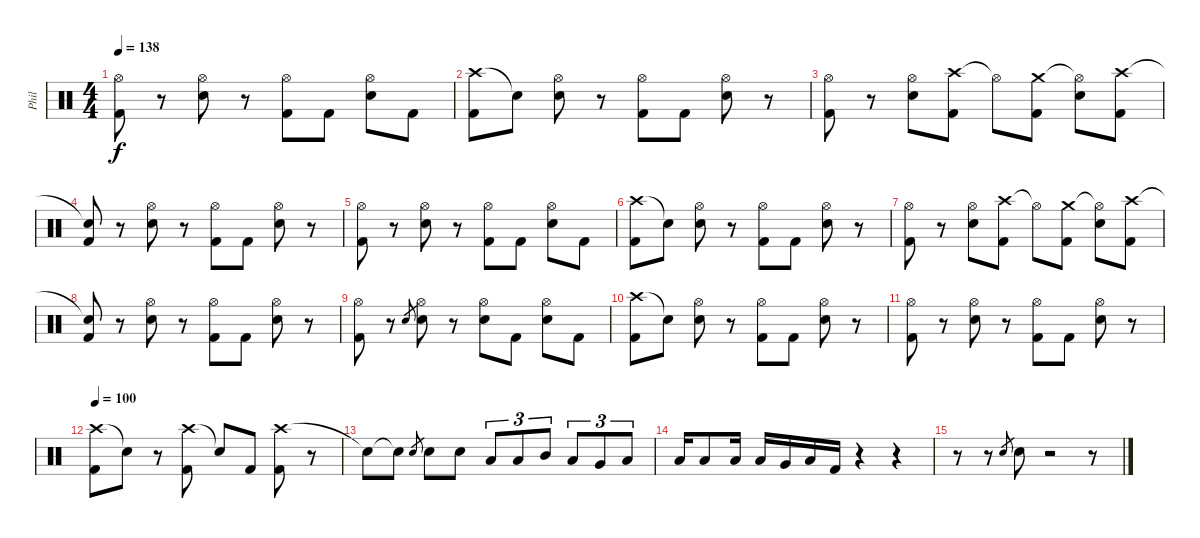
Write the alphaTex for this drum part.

\track ("Phil" "Phil") {instrument percussion}
\staff {score}
\articulation defaults
\ts (4 4)
\tempo 138
\clef neutral
\ks c
("Hi-Hat (open)" "Kick (hit) 2").8{dy f} r.8 ("Hi-Hat (open)" "Snare (hit) 2").8 r.8 ("Hi-Hat (open)" "Kick (hit) 2").8 "Kick (hit) 2".8 ("Hi-Hat (open)" "Snare (hit) 2").8 "Kick (hit) 2".8 |
("Crash high (hit)" "Kick (hit) 2").8 "Snare (hit)"{t}.8 ("Hi-Hat (open)" "Snare (hit) 2").8 r.8 ("Hi-Hat (open)" "Kick (hit) 2").8 "Kick (hit) 2".8 ("Hi-Hat (open)" "Snare (hit) 2").8 r.8 |
("Hi-Hat (open)" "Kick (hit) 2").8 r.8 ("Hi-Hat (open)" "Snare (hit) 2").8 ("Crash high (hit)" "Kick (hit) 2").8 "Hi-Hat (open)"{t}.8 ("Crash medium (hit)" "Kick (hit) 2").8 ("Hi-Hat (open)"{t} "Snare (hit) 2").8 ("Crash high (hit)" "Kick (hit) 2").8 |
("Snare (hit)"{t} "Kick (hit) 2").8 r.8 ("Hi-Hat (open)" "Snare (hit) 2").8 r.8 ("Hi-Hat (open)" "Kick (hit) 2").8 "Kick (hit) 2".8 ("Hi-Hat (open)" "Snare (hit) 2").8 r.8 |
("Hi-Hat (open)" "Kick (hit) 2").8 r.8 ("Hi-Hat (open)" "Snare (hit) 2").8 r.8 ("Hi-Hat (open)" "Kick (hit) 2").8 "Kick (hit) 2".8 ("Hi-Hat (open)" "Snare (hit) 2").8 "Kick (hit) 2".8 |
("Crash high (hit)" "Kick (hit) 2").8 "Snare (hit)"{t}.8 ("Hi-Hat (open)" "Snare (hit) 2").8 r.8 ("Hi-Hat (open)" "Kick (hit) 2").8 "Kick (hit) 2".8 ("Hi-Hat (open)" "Snare (hit) 2").8 r.8 |
("Hi-Hat (open)" "Kick (hit) 2").8 r.8 ("Hi-Hat (open)" "Snare (hit) 2").8 ("Crash high (hit)" "Kick (hit) 2").8 "Hi-Hat (open)"{t}.8 ("Crash medium (hit)" "Kick (hit) 2").8 ("Hi-Hat (open)"{t} "Snare (hit) 2").8 ("Crash high (hit)" "Kick (hit) 2").8 |
("Snare (hit)"{t} "Kick (hit) 2").8 r.8 ("Hi-Hat (open)" "Snare (hit) 2").8 r.8 ("Hi-Hat (open)" "Kick (hit) 2").8 "Kick (hit) 2".8 ("Hi-Hat (open)" "Snare (hit) 2").8 r.8 |
("Hi-Hat (open)" "Kick (hit) 2").8 r.8 "Snare (hit) 2".8{gr} ("Hi-Hat (open)" "Snare (hit) 2").8 r.8 ("Hi-Hat (open)" "Snare (hit) 2").8 "Kick (hit) 2".8 ("Hi-Hat (open)" "Snare (hit) 2").8 "Kick (hit) 2".8 |
("Crash high (hit)" "Kick (hit) 2").8 "Snare (hit)"{t}.8 ("Hi-Hat (open)" "Snare (hit) 2").8 r.8 ("Hi-Hat (open)" "Kick (hit) 2").8 "Kick (hit) 2".8 ("Hi-Hat (open)" "Snare (hit) 2").8 r.8 |
("Hi-Hat (open)" "Kick (hit) 2").8 r.8 ("Hi-Hat (open)" "Snare (hit) 2").8 r.8 ("Hi-Hat (open)" "Kick (hit) 2").8 "Kick (hit) 2".8 ("Hi-Hat (open)" "Snare (hit) 2").8 r.8 |
\tempo 100
("Crash high (hit)" "Kick (hit) 2").8 "Snare (hit)"{t}.8 r.8 ("Crash high (hit)" "Kick (hit) 2").8 "Snare (hit)"{t}.8 "Kick (hit) 2".8 ("Crash high (hit)" "Kick (hit) 2").8 r.8 |
"Snare (hit)"{t}.8 "Snare (hit)"{t}.8 "Snare (hit) 2".8{gr} "Snare (hit) 2".8 "Snare (hit) 2".8 "Low Tom (hit)".8{tu (3 2)} "Low Tom (hit)".8{tu (3 2)} "Mid Tom (hit)".8{tu (3 2)} "Low Tom (hit)".8{tu (3 2)} "Very Low Tom (hit)".8{tu (3 2)} "Low Floor Tom (hit)".8{tu (3 2)} |
"Low Floor Tom (hit)".16 "Low Floor Tom (hit)".8 "Low Tom (hit)".16 "Low Tom (hit)".16 "Very Low Tom (hit)".16 "Low Floor Tom (hit)".16 "Kick (hit) 2".16 r.4 r.4 |
r.8 r.8 "Snare (hit) 2".8{gr} "Snare (hit) 2".8 r.2 r.8
